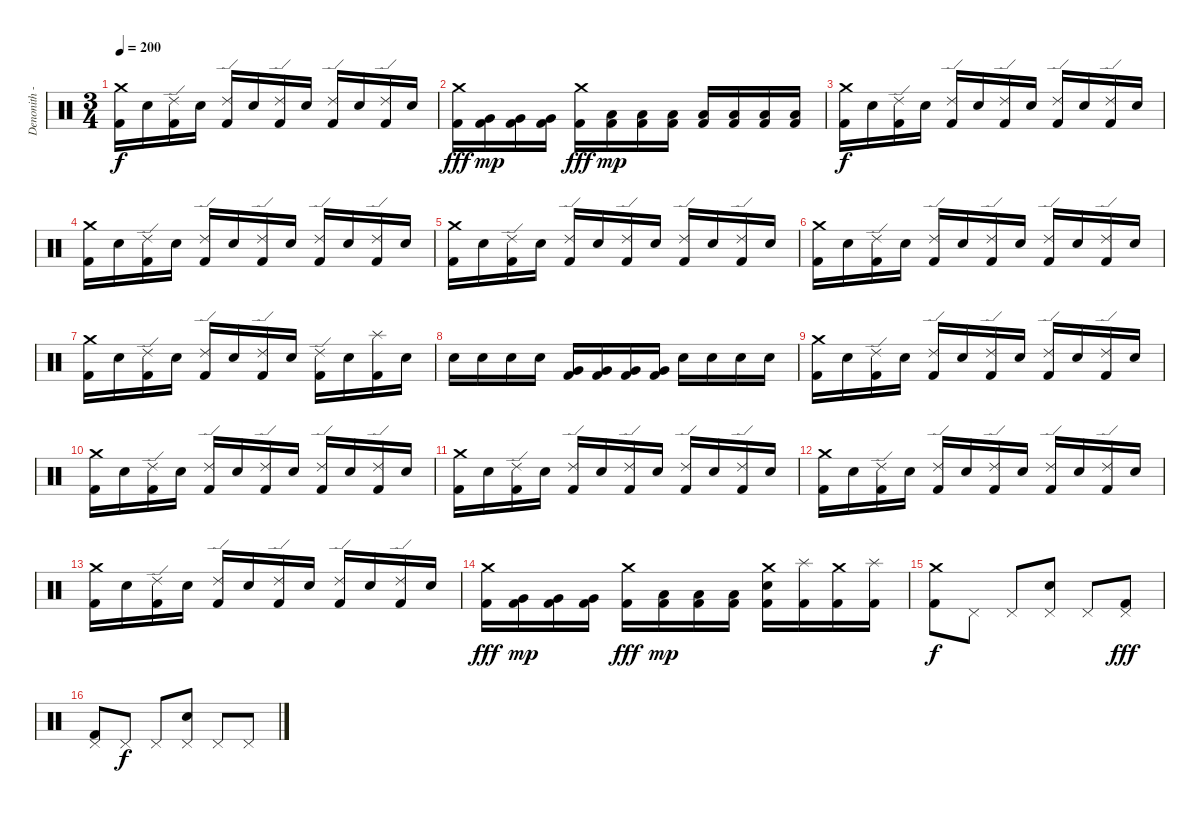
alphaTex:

\track ("Denonith - Spyros" "Denonith -") {instrument percussion}
\staff {score}
\articulation defaults
\ts (3 4)
\tempo 200
\clef neutral
\ks c
("Crash medium (hit)" "Kick (hit) 2").16{dy f} "Electric Snare (hit)".16 ("Ride (edge) 2" "Kick (hit) 2").16 "Electric Snare (hit)".16 ("Ride (edge) 2" "Kick (hit) 2").16 "Electric Snare (hit)".16 ("Ride (edge) 2" "Kick (hit) 2").16 "Electric Snare (hit)".16 ("Ride (edge) 2" "Kick (hit) 2").16 "Electric Snare (hit)".16 ("Ride (edge) 2" "Kick (hit) 2").16 "Electric Snare (hit)".16 |
("Crash medium (hit)" "Kick (hit) 2").16{dy fff} ("Very Low Tom (hit)" "Kick (hit) 2").16{dy mp} ("Very Low Tom (hit)" "Kick (hit) 2").16 ("Very Low Tom (hit)" "Kick (hit) 2").16 ("Crash medium (hit)" "Kick (hit) 2").16{dy fff} ("Low Floor Tom (hit)" "Kick (hit) 2").16{dy mp} ("Low Floor Tom (hit)" "Kick (hit) 2").16 ("Low Floor Tom (hit)" "Kick (hit) 2").16 ("Low Floor Tom (hit)" "Kick (hit) 2").16 ("Low Floor Tom (hit)" "Kick (hit) 2").16 ("Low Floor Tom (hit)" "Kick (hit) 2").16 ("Low Floor Tom (hit)" "Kick (hit) 2").16 |
("Crash medium (hit)" "Kick (hit) 2").16{dy f} "Electric Snare (hit)".16 ("Ride (edge) 2" "Kick (hit) 2").16 "Electric Snare (hit)".16 ("Ride (edge) 2" "Kick (hit) 2").16 "Electric Snare (hit)".16 ("Ride (edge) 2" "Kick (hit) 2").16 "Electric Snare (hit)".16 ("Ride (edge) 2" "Kick (hit) 2").16 "Electric Snare (hit)".16 ("Ride (edge) 2" "Kick (hit) 2").16 "Electric Snare (hit)".16 |
("Crash medium (hit)" "Kick (hit) 2").16 "Electric Snare (hit)".16 ("Ride (edge) 2" "Kick (hit) 2").16 "Electric Snare (hit)".16 ("Ride (edge) 2" "Kick (hit) 2").16 "Electric Snare (hit)".16 ("Ride (edge) 2" "Kick (hit) 2").16 "Electric Snare (hit)".16 ("Ride (edge) 2" "Kick (hit) 2").16 "Electric Snare (hit)".16 ("Ride (edge) 2" "Kick (hit) 2").16 "Electric Snare (hit)".16 |
("Crash medium (hit)" "Kick (hit) 2").16 "Electric Snare (hit)".16 ("Ride (edge) 2" "Kick (hit) 2").16 "Electric Snare (hit)".16 ("Ride (edge) 2" "Kick (hit) 2").16 "Electric Snare (hit)".16 ("Ride (edge) 2" "Kick (hit) 2").16 "Electric Snare (hit)".16 ("Ride (edge) 2" "Kick (hit) 2").16 "Electric Snare (hit)".16 ("Ride (edge) 2" "Kick (hit) 2").16 "Electric Snare (hit)".16 |
("Crash medium (hit)" "Kick (hit) 2").16 "Electric Snare (hit)".16 ("Ride (edge) 2" "Kick (hit) 2").16 "Electric Snare (hit)".16 ("Ride (edge) 2" "Kick (hit) 2").16 "Electric Snare (hit)".16 ("Ride (edge) 2" "Kick (hit) 2").16 "Electric Snare (hit)".16 ("Ride (edge) 2" "Kick (hit) 2").16 "Electric Snare (hit)".16 ("Ride (edge) 2" "Kick (hit) 2").16 "Electric Snare (hit)".16 |
("Crash medium (hit)" "Kick (hit) 2").16 "Electric Snare (hit)".16 ("Ride (edge) 2" "Kick (hit) 2").16 "Electric Snare (hit)".16 ("Ride (edge) 2" "Kick (hit) 2").16 "Electric Snare (hit)".16 ("Ride (edge) 2" "Kick (hit) 2").16 "Electric Snare (hit)".16 ("Ride (edge) 2" "Kick (hit) 2").16 "Electric Snare (hit)".16 ("Splash (hit)" "Kick (hit) 2").16 "Electric Snare (hit)".16 |
"Electric Snare (hit)".16 "Electric Snare (hit)".16 "Electric Snare (hit)".16 "Electric Snare (hit)".16 ("Very Low Tom (hit)" "Kick (hit) 2").16 ("Very Low Tom (hit)" "Kick (hit) 2").16 ("Very Low Tom (hit)" "Kick (hit) 2").16 ("Very Low Tom (hit)" "Kick (hit) 2").16 "Electric Snare (hit)".16 "Electric Snare (hit)".16 "Electric Snare (hit)".16 "Electric Snare (hit)".16 |
("Crash medium (hit)" "Kick (hit) 2").16 "Electric Snare (hit)".16 ("Ride (edge) 2" "Kick (hit) 2").16 "Electric Snare (hit)".16 ("Ride (edge) 2" "Kick (hit) 2").16 "Electric Snare (hit)".16 ("Ride (edge) 2" "Kick (hit) 2").16 "Electric Snare (hit)".16 ("Ride (edge) 2" "Kick (hit) 2").16 "Electric Snare (hit)".16 ("Ride (edge) 2" "Kick (hit) 2").16 "Electric Snare (hit)".16 |
("Crash medium (hit)" "Kick (hit) 2").16 "Electric Snare (hit)".16 ("Ride (edge) 2" "Kick (hit) 2").16 "Electric Snare (hit)".16 ("Ride (edge) 2" "Kick (hit) 2").16 "Electric Snare (hit)".16 ("Ride (edge) 2" "Kick (hit) 2").16 "Electric Snare (hit)".16 ("Ride (edge) 2" "Kick (hit) 2").16 "Electric Snare (hit)".16 ("Ride (edge) 2" "Kick (hit) 2").16 "Electric Snare (hit)".16 |
("Crash medium (hit)" "Kick (hit) 2").16 "Electric Snare (hit)".16 ("Ride (edge) 2" "Kick (hit) 2").16 "Electric Snare (hit)".16 ("Ride (edge) 2" "Kick (hit) 2").16 "Electric Snare (hit)".16 ("Ride (edge) 2" "Kick (hit) 2").16 "Electric Snare (hit)".16 ("Ride (edge) 2" "Kick (hit) 2").16 "Electric Snare (hit)".16 ("Ride (edge) 2" "Kick (hit) 2").16 "Electric Snare (hit)".16 |
("Crash medium (hit)" "Kick (hit) 2").16 "Electric Snare (hit)".16 ("Ride (edge) 2" "Kick (hit) 2").16 "Electric Snare (hit)".16 ("Ride (edge) 2" "Kick (hit) 2").16 "Electric Snare (hit)".16 ("Ride (edge) 2" "Kick (hit) 2").16 "Electric Snare (hit)".16 ("Ride (edge) 2" "Kick (hit) 2").16 "Electric Snare (hit)".16 ("Ride (edge) 2" "Kick (hit) 2").16 "Electric Snare (hit)".16 |
("Crash medium (hit)" "Kick (hit) 2").16 "Electric Snare (hit)".16 ("Ride (edge) 2" "Kick (hit) 2").16 "Electric Snare (hit)".16 ("Ride (edge) 2" "Kick (hit) 2").16 "Electric Snare (hit)".16 ("Ride (edge) 2" "Kick (hit) 2").16 "Electric Snare (hit)".16 ("Ride (edge) 2" "Kick (hit) 2").16 "Electric Snare (hit)".16 ("Ride (edge) 2" "Kick (hit) 2").16 "Electric Snare (hit)".16 |
("Crash medium (hit)" "Kick (hit) 2").16{dy fff} ("Very Low Tom (hit)" "Kick (hit) 2").16{dy mp} ("Very Low Tom (hit)" "Kick (hit) 2").16 ("Very Low Tom (hit)" "Kick (hit) 2").16 ("Crash medium (hit)" "Kick (hit) 2").16{dy fff} ("Low Floor Tom (hit)" "Kick (hit) 2").16{dy mp} ("Low Floor Tom (hit)" "Kick (hit) 2").16 ("Low Floor Tom (hit)" "Kick (hit) 2").16 ("Crash medium (hit)" "Snare (hit)" "Kick (hit) 2").16 ("Splash (hit)" "Kick (hit) 2").16 ("Crash medium (hit)" "Kick (hit) 2").16 ("Splash (hit)" "Kick (hit) 2").16 |
("Crash medium (hit)" "Kick (hit) 2").8{dy f} "Pedal Hi-Hat (hit)".8 "Pedal Hi-Hat (hit)".8 ("Pedal Hi-Hat (hit)" "Electric Snare (hit)").8 "Pedal Hi-Hat (hit)".8 ("Pedal Hi-Hat (hit)" "Kick (hit) 2").8{dy fff} |
("Pedal Hi-Hat (hit)" "Kick (hit) 2").8 "Pedal Hi-Hat (hit)".8{dy f} "Pedal Hi-Hat (hit)".8 ("Pedal Hi-Hat (hit)" "Electric Snare (hit)").8 "Pedal Hi-Hat (hit)".8 "Pedal Hi-Hat (hit)".8
